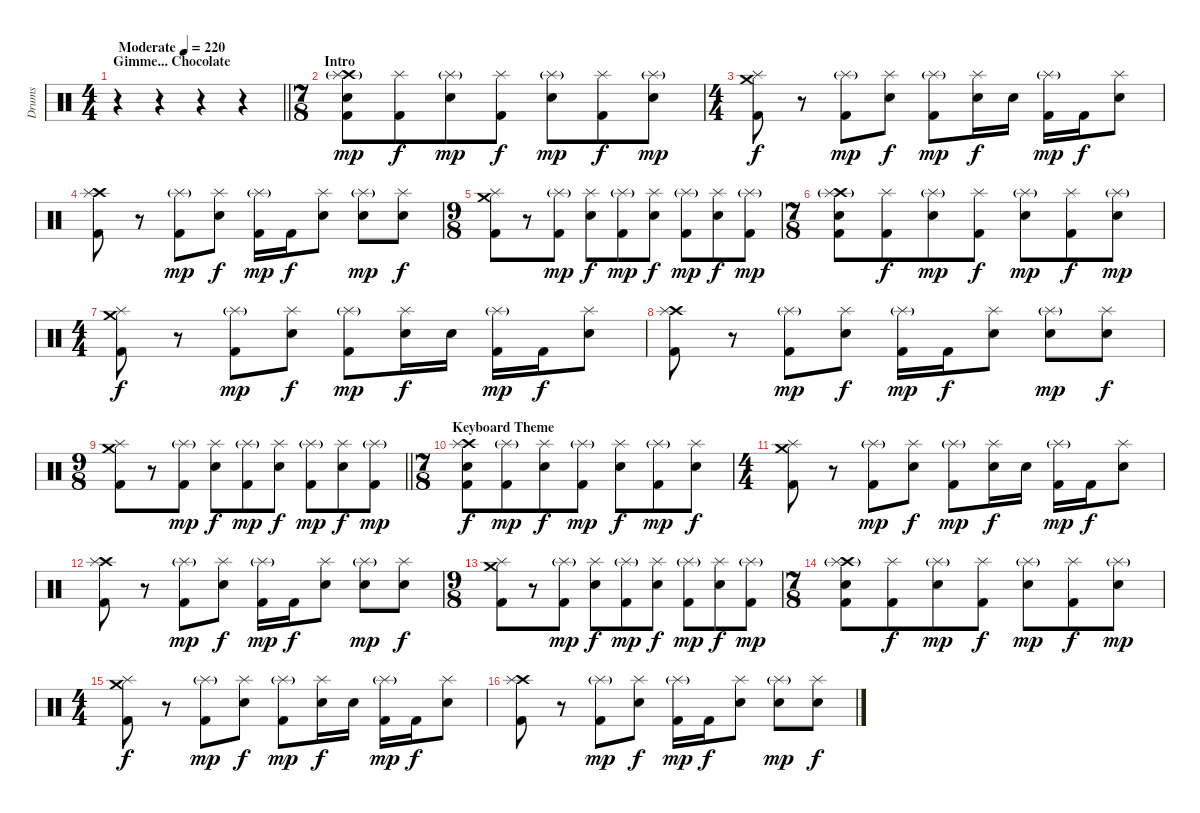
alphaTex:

\track ("Drums" "Drums") {instrument percussion}
\staff {score}
\articulation defaults
\ts (4 4)
\section ("" "Gimme... Chocolate")
\tempo (220 "Moderate")
\clef neutral
\barLineRight lightlight
\ks c
r.4{dy mp} r.4 r.4 r.4 |
\ts (7 8)
\section ("" "Intro")
("Crash high (hit)" "Splash (hit)"{g} "Electric Snare (hit)" "Kick (hit) 2").8 ("Splash (hit)" "Kick (hit) 2").8{dy f} ("Splash (hit)"{g} "Electric Snare (hit)").8{dy mp} ("Splash (hit)" "Kick (hit) 2").8{dy f} ("Splash (hit)"{g} "Electric Snare (hit)").8{dy mp} ("Splash (hit)" "Kick (hit) 2").8{dy f} ("Splash (hit)"{g} "Electric Snare (hit)").8{dy mp} |
\ts (4 4)
("Crash medium (hit)" "Splash (hit)" "Kick (hit) 2").8{dy f} r.8 ("Splash (hit)"{g} "Kick (hit) 2").8{dy mp} ("Splash (hit)" "Electric Snare (hit)").8{dy f} ("Splash (hit)"{g} "Kick (hit) 2").8{dy mp} ("Splash (hit)" "Electric Snare (hit)").16{dy f} "Electric Snare (hit)".16 ("Splash (hit)"{g} "Kick (hit) 2").16{dy mp} "Kick (hit) 2".16{dy f} ("Splash (hit)" "Electric Snare (hit)").8 |
("Crash high (hit)" "Splash (hit)" "Kick (hit) 2").8 r.8 ("Splash (hit)"{g} "Kick (hit) 2").8{dy mp} ("Splash (hit)" "Electric Snare (hit)").8{dy f} ("Splash (hit)"{g} "Kick (hit) 2").16{dy mp} "Kick (hit) 2".16{dy f} ("Splash (hit)" "Electric Snare (hit)").8 ("Splash (hit)"{g} "Electric Snare (hit)").8{dy mp} ("Splash (hit)" "Electric Snare (hit)").8{dy f} |
\ts (9 8)
("Crash medium (hit)" "Splash (hit)" "Kick (hit) 2").8 r.8 ("Splash (hit)"{g} "Kick (hit) 2").8{dy mp} ("Splash (hit)" "Electric Snare (hit)").8{dy f} ("Splash (hit)"{g} "Kick (hit) 2").8{dy mp} ("Splash (hit)" "Electric Snare (hit)").8{dy f} ("Splash (hit)"{g} "Kick (hit) 2").8{dy mp} ("Splash (hit)" "Electric Snare (hit)").8{dy f} ("Splash (hit)"{g} "Kick (hit) 2").8{dy mp} |
\ts (7 8)
("Crash high (hit)" "Splash (hit)"{g} "Electric Snare (hit)" "Kick (hit) 2").8 ("Splash (hit)" "Kick (hit) 2").8{dy f} ("Splash (hit)"{g} "Electric Snare (hit)").8{dy mp} ("Splash (hit)" "Kick (hit) 2").8{dy f} ("Splash (hit)"{g} "Electric Snare (hit)").8{dy mp} ("Splash (hit)" "Kick (hit) 2").8{dy f} ("Splash (hit)"{g} "Electric Snare (hit)").8{dy mp} |
\ts (4 4)
("Crash medium (hit)" "Splash (hit)" "Kick (hit) 2").8{dy f} r.8 ("Splash (hit)"{g} "Kick (hit) 2").8{dy mp} ("Splash (hit)" "Electric Snare (hit)").8{dy f} ("Splash (hit)"{g} "Kick (hit) 2").8{dy mp} ("Splash (hit)" "Electric Snare (hit)").16{dy f} "Electric Snare (hit)".16 ("Splash (hit)"{g} "Kick (hit) 2").16{dy mp} "Kick (hit) 2".16{dy f} ("Splash (hit)" "Electric Snare (hit)").8 |
("Crash high (hit)" "Splash (hit)" "Kick (hit) 2").8 r.8 ("Splash (hit)"{g} "Kick (hit) 2").8{dy mp} ("Splash (hit)" "Electric Snare (hit)").8{dy f} ("Splash (hit)"{g} "Kick (hit) 2").16{dy mp} "Kick (hit) 2".16{dy f} ("Splash (hit)" "Electric Snare (hit)").8 ("Splash (hit)"{g} "Electric Snare (hit)").8{dy mp} ("Splash (hit)" "Electric Snare (hit)").8{dy f} |
\ts (9 8)
\barLineRight lightlight
("Crash medium (hit)" "Splash (hit)" "Kick (hit) 2").8 r.8 ("Splash (hit)"{g} "Kick (hit) 2").8{dy mp} ("Splash (hit)" "Electric Snare (hit)").8{dy f} ("Splash (hit)"{g} "Kick (hit) 2").8{dy mp} ("Splash (hit)" "Electric Snare (hit)").8{dy f} ("Splash (hit)"{g} "Kick (hit) 2").8{dy mp} ("Splash (hit)" "Electric Snare (hit)").8{dy f} ("Splash (hit)"{g} "Kick (hit) 2").8{dy mp} |
\ts (7 8)
\section ("" "Keyboard Theme")
("Crash high (hit)" "Splash (hit)" "Electric Snare (hit)" "Kick (hit) 2").8{dy f} ("Splash (hit)"{g} "Kick (hit) 2").8{dy mp} ("Splash (hit)" "Electric Snare (hit)").8{dy f} ("Splash (hit)"{g} "Kick (hit) 2").8{dy mp} ("Splash (hit)" "Electric Snare (hit)").8{dy f} ("Splash (hit)"{g} "Kick (hit) 2").8{dy mp} ("Splash (hit)" "Electric Snare (hit)").8{dy f} |
\ts (4 4)
("Crash medium (hit)" "Splash (hit)" "Kick (hit) 2").8 r.8 ("Splash (hit)"{g} "Kick (hit) 2").8{dy mp} ("Splash (hit)" "Electric Snare (hit)").8{dy f} ("Splash (hit)"{g} "Kick (hit) 2").8{dy mp} ("Splash (hit)" "Electric Snare (hit)").16{dy f} "Electric Snare (hit)".16 ("Splash (hit)"{g} "Kick (hit) 2").16{dy mp} "Kick (hit) 2".16{dy f} ("Splash (hit)" "Electric Snare (hit)").8 |
("Crash high (hit)" "Splash (hit)" "Kick (hit) 2").8 r.8 ("Splash (hit)"{g} "Kick (hit) 2").8{dy mp} ("Splash (hit)" "Electric Snare (hit)").8{dy f} ("Splash (hit)"{g} "Kick (hit) 2").16{dy mp} "Kick (hit) 2".16{dy f} ("Splash (hit)" "Electric Snare (hit)").8 ("Splash (hit)"{g} "Electric Snare (hit)").8{dy mp} ("Splash (hit)" "Electric Snare (hit)").8{dy f} |
\ts (9 8)
("Crash medium (hit)" "Splash (hit)" "Kick (hit) 2").8 r.8 ("Splash (hit)"{g} "Kick (hit) 2").8{dy mp} ("Splash (hit)" "Electric Snare (hit)").8{dy f} ("Splash (hit)"{g} "Kick (hit) 2").8{dy mp} ("Splash (hit)" "Electric Snare (hit)").8{dy f} ("Splash (hit)"{g} "Kick (hit) 2").8{dy mp} ("Splash (hit)" "Electric Snare (hit)").8{dy f} ("Splash (hit)"{g} "Kick (hit) 2").8{dy mp} |
\ts (7 8)
("Crash high (hit)" "Splash (hit)"{g} "Electric Snare (hit)" "Kick (hit) 2").8 ("Splash (hit)" "Kick (hit) 2").8{dy f} ("Splash (hit)"{g} "Electric Snare (hit)").8{dy mp} ("Splash (hit)" "Kick (hit) 2").8{dy f} ("Splash (hit)"{g} "Electric Snare (hit)").8{dy mp} ("Splash (hit)" "Kick (hit) 2").8{dy f} ("Splash (hit)"{g} "Electric Snare (hit)").8{dy mp} |
\ts (4 4)
("Crash medium (hit)" "Splash (hit)" "Kick (hit) 2").8{dy f} r.8 ("Splash (hit)"{g} "Kick (hit) 2").8{dy mp} ("Splash (hit)" "Electric Snare (hit)").8{dy f} ("Splash (hit)"{g} "Kick (hit) 2").8{dy mp} ("Splash (hit)" "Electric Snare (hit)").16{dy f} "Electric Snare (hit)".16 ("Splash (hit)"{g} "Kick (hit) 2").16{dy mp} "Kick (hit) 2".16{dy f} ("Splash (hit)" "Electric Snare (hit)").8 |
("Crash high (hit)" "Splash (hit)" "Kick (hit) 2").8 r.8 ("Splash (hit)"{g} "Kick (hit) 2").8{dy mp} ("Splash (hit)" "Electric Snare (hit)").8{dy f} ("Splash (hit)"{g} "Kick (hit) 2").16{dy mp} "Kick (hit) 2".16{dy f} ("Splash (hit)" "Electric Snare (hit)").8 ("Splash (hit)"{g} "Electric Snare (hit)").8{dy mp} ("Splash (hit)" "Electric Snare (hit)").8{dy f}
